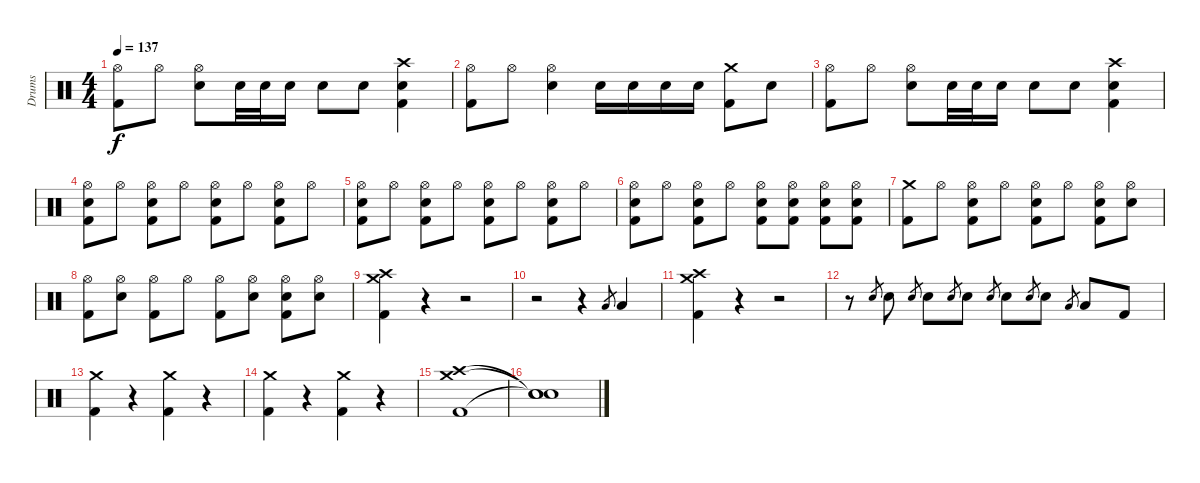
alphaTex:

\track ("Drums" "Drums") {instrument percussion}
\staff {score}
\articulation defaults
\ts (4 4)
\tempo 137
\clef neutral
\ks c
("Hi-Hat (open)" "Kick (hit) 2").8{dy f} "Hi-Hat (open)".8 ("Hi-Hat (open)" "Snare (hit) 2").8 "Snare (hit) 2".32 "Snare (hit) 2".32 "Snare (hit) 2".16 "Snare (hit) 2".8 "Snare (hit) 2".8 ("Crash high (hit)" "Snare (hit) 2" "Kick (hit) 2").4 |
("Hi-Hat (open)" "Kick (hit) 2").8 "Hi-Hat (open)".8 ("Hi-Hat (open)" "Snare (hit) 2").4 "Snare (hit) 2".16 "Snare (hit) 2".16 "Snare (hit) 2".16 "Snare (hit) 2".16 ("Crash medium (hit)" "Kick (hit) 2").8 "Snare (hit) 2".8 |
("Hi-Hat (open)" "Kick (hit) 2").8 "Hi-Hat (open)".8 ("Hi-Hat (open)" "Snare (hit) 2").8 "Snare (hit) 2".32 "Snare (hit) 2".32 "Snare (hit) 2".16 "Snare (hit) 2".8 "Snare (hit) 2".8 ("Crash high (hit)" "Snare (hit) 2" "Kick (hit) 2").4 |
("Hi-Hat (open)" "Snare (hit) 2" "Kick (hit) 2").8 "Hi-Hat (open)".8 ("Hi-Hat (open)" "Snare (hit) 2" "Kick (hit) 2").8 "Hi-Hat (open)".8 ("Hi-Hat (open)" "Snare (hit) 2" "Kick (hit) 2").8 "Hi-Hat (open)".8 ("Hi-Hat (open)" "Snare (hit) 2" "Kick (hit) 2").8 "Hi-Hat (open)".8 |
("Hi-Hat (open)" "Snare (hit) 2" "Kick (hit) 2").8 "Hi-Hat (open)".8 ("Hi-Hat (open)" "Snare (hit) 2" "Kick (hit) 2").8 "Hi-Hat (open)".8 ("Hi-Hat (open)" "Snare (hit) 2" "Kick (hit) 2").8 "Hi-Hat (open)".8 ("Hi-Hat (open)" "Snare (hit) 2" "Kick (hit) 2").8 "Hi-Hat (open)".8 |
("Hi-Hat (open)" "Snare (hit) 2" "Kick (hit) 2").8 "Hi-Hat (open)".8 ("Hi-Hat (open)" "Snare (hit) 2" "Kick (hit) 2").8 "Hi-Hat (open)".8 ("Hi-Hat (open)" "Snare (hit) 2" "Kick (hit) 2").8 ("Hi-Hat (open)" "Snare (hit) 2" "Kick (hit) 2").8 ("Hi-Hat (open)" "Snare (hit) 2" "Kick (hit) 2").8 ("Hi-Hat (open)" "Snare (hit) 2" "Kick (hit) 2").8 |
("Crash medium (hit)" "Kick (hit) 2").8 "Hi-Hat (open)".8 ("Hi-Hat (open)" "Snare (hit) 2" "Kick (hit) 2").8 "Hi-Hat (open)".8 ("Hi-Hat (open)" "Snare (hit) 2" "Kick (hit) 2").8 "Hi-Hat (open)".8 ("Hi-Hat (open)" "Snare (hit) 2" "Kick (hit) 2").8 ("Hi-Hat (open)" "Snare (hit) 2").8 |
("Hi-Hat (open)" "Kick (hit) 2").8 ("Hi-Hat (open)" "Snare (hit) 2").8 ("Hi-Hat (open)" "Kick (hit) 2").8 "Hi-Hat (open)".8 ("Hi-Hat (open)" "Kick (hit) 2").8 ("Hi-Hat (open)" "Snare (hit) 2").8 ("Hi-Hat (open)" "Snare (hit) 2" "Kick (hit) 2").8 ("Hi-Hat (open)" "Snare (hit) 2").8 |
("Crash medium (hit)" "Crash high (hit)" "Kick (hit) 2").4 r.4 r.2 |
r.2 r.4 "Low Tom (hit)".8{gr} "Low Tom (hit)".4 |
("Crash high (hit)" "Crash medium (hit)" "Kick (hit) 2").4 r.4 r.2 |
r.8 "Snare (hit) 2".8{gr} "Snare (hit) 2".8 "Snare (hit) 2".8{gr} "Snare (hit) 2".8 "Snare (hit) 2".8{gr} "Snare (hit) 2".8 "Snare (hit) 2".8{gr} "Snare (hit) 2".8 "Snare (hit) 2".8{gr} "Snare (hit) 2".8 "Low Tom (hit)".8{gr} "Low Tom (hit)".8 "Kick (hit) 2".8 |
("Crash medium (hit)" "Kick (hit) 2").4 r.4 ("Crash medium (hit)" "Kick (hit) 2").4 r.4 |
("Crash medium (hit)" "Kick (hit) 2").4 r.4 ("Crash medium (hit)" "Kick (hit) 2").4 r.4 |
("Crash medium (hit)" "Crash high (hit)" "Kick (hit) 2").1 |
("Snare (hit)"{t} "Snare (hit)"{t} "Snare (hit)"{t}).1
